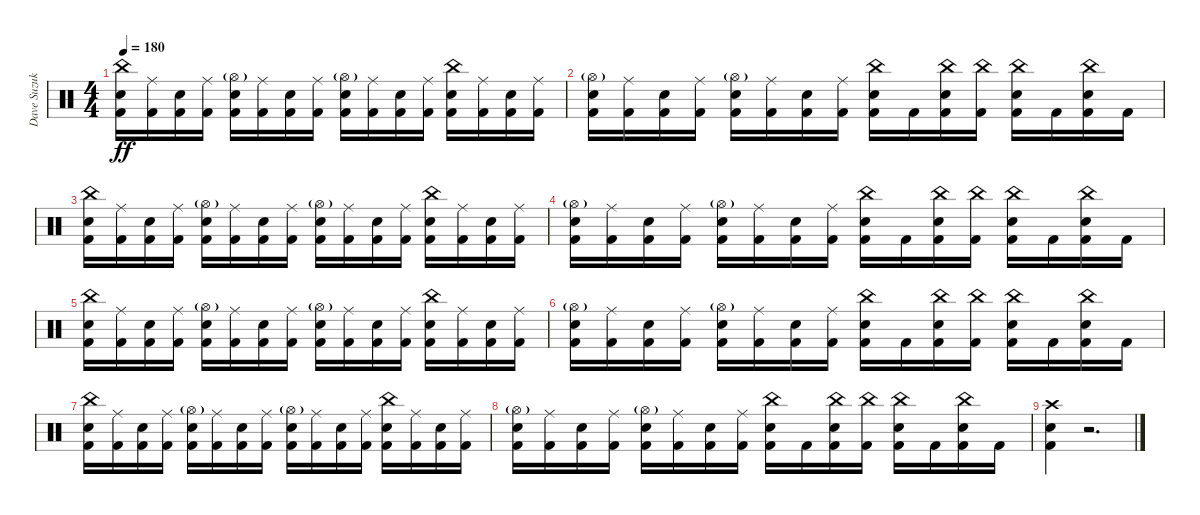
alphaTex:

\track ("Dave Suzuki - Drums" "Dave Suzuk") {instrument percussion}
\staff {score}
\articulation defaults
\ts (4 4)
\tempo 180
\clef neutral
\ks c
("China (hit)" "Electric Snare (hit)" "Kick (hit) 2").16{dy ff} ("Ride (middle)" "Kick (hit) 2").16 ("Electric Snare (hit)" "Kick (hit) 2").16 ("Ride (middle)" "Kick (hit) 2").16 ("Hi-Hat (open)"{g} "Electric Snare (hit)" "Kick (hit) 2").16 ("Ride (middle)" "Kick (hit) 2").16 ("Electric Snare (hit)" "Kick (hit) 2").16 ("Ride (middle)" "Kick (hit) 2").16 ("Hi-Hat (open)"{g} "Electric Snare (hit)" "Kick (hit) 2").16 ("Ride (middle)" "Kick (hit) 2").16 ("Electric Snare (hit)" "Kick (hit) 2").16 ("Ride (middle)" "Kick (hit) 2").16 ("China (hit)" "Electric Snare (hit)" "Kick (hit) 2").16 ("Ride (middle)" "Kick (hit) 2").16 ("Electric Snare (hit)" "Kick (hit) 2").16 ("Ride (middle)" "Kick (hit) 2").16 |
("Hi-Hat (open)"{g} "Electric Snare (hit)" "Kick (hit) 2").16 ("Ride (middle)" "Kick (hit) 2").16 ("Electric Snare (hit)" "Kick (hit) 2").16 ("Ride (middle)" "Kick (hit) 2").16 ("Hi-Hat (open)"{g} "Electric Snare (hit)" "Kick (hit) 2").16 ("Ride (middle)" "Kick (hit) 2").16 ("Electric Snare (hit)" "Kick (hit) 2").16 ("Ride (middle)" "Kick (hit) 2").16 ("China (hit)" "Electric Snare (hit)" "Kick (hit) 2").16 "Kick (hit) 2".16 ("China (hit)" "Electric Snare (hit)" "Kick (hit) 2").16 ("China (hit)" "Kick (hit) 2").16 ("China (hit)" "Electric Snare (hit)" "Kick (hit) 2").16 "Kick (hit) 2".16 ("China (hit)" "Electric Snare (hit)" "Kick (hit) 2").16 "Kick (hit) 2".16 |
("China (hit)" "Electric Snare (hit)" "Kick (hit) 2").16 ("Ride (middle)" "Kick (hit) 2").16 ("Electric Snare (hit)" "Kick (hit) 2").16 ("Ride (middle)" "Kick (hit) 2").16 ("Hi-Hat (open)"{g} "Electric Snare (hit)" "Kick (hit) 2").16 ("Ride (middle)" "Kick (hit) 2").16 ("Electric Snare (hit)" "Kick (hit) 2").16 ("Ride (middle)" "Kick (hit) 2").16 ("Hi-Hat (open)"{g} "Electric Snare (hit)" "Kick (hit) 2").16 ("Ride (middle)" "Kick (hit) 2").16 ("Electric Snare (hit)" "Kick (hit) 2").16 ("Ride (middle)" "Kick (hit) 2").16 ("China (hit)" "Electric Snare (hit)" "Kick (hit) 2").16 ("Ride (middle)" "Kick (hit) 2").16 ("Electric Snare (hit)" "Kick (hit) 2").16 ("Ride (middle)" "Kick (hit) 2").16 |
("Hi-Hat (open)"{g} "Electric Snare (hit)" "Kick (hit) 2").16 ("Ride (middle)" "Kick (hit) 2").16 ("Electric Snare (hit)" "Kick (hit) 2").16 ("Ride (middle)" "Kick (hit) 2").16 ("Hi-Hat (open)"{g} "Electric Snare (hit)" "Kick (hit) 2").16 ("Ride (middle)" "Kick (hit) 2").16 ("Electric Snare (hit)" "Kick (hit) 2").16 ("Ride (middle)" "Kick (hit) 2").16 ("China (hit)" "Electric Snare (hit)" "Kick (hit) 2").16 "Kick (hit) 2".16 ("China (hit)" "Electric Snare (hit)" "Kick (hit) 2").16 ("China (hit)" "Kick (hit) 2").16 ("China (hit)" "Electric Snare (hit)" "Kick (hit) 2").16 "Kick (hit) 2".16 ("China (hit)" "Electric Snare (hit)" "Kick (hit) 2").16 "Kick (hit) 2".16 |
("China (hit)" "Electric Snare (hit)" "Kick (hit) 2").16 ("Ride (middle)" "Kick (hit) 2").16 ("Electric Snare (hit)" "Kick (hit) 2").16 ("Ride (middle)" "Kick (hit) 2").16 ("Hi-Hat (open)"{g} "Electric Snare (hit)" "Kick (hit) 2").16 ("Ride (middle)" "Kick (hit) 2").16 ("Electric Snare (hit)" "Kick (hit) 2").16 ("Ride (middle)" "Kick (hit) 2").16 ("Hi-Hat (open)"{g} "Electric Snare (hit)" "Kick (hit) 2").16 ("Ride (middle)" "Kick (hit) 2").16 ("Electric Snare (hit)" "Kick (hit) 2").16 ("Ride (middle)" "Kick (hit) 2").16 ("China (hit)" "Electric Snare (hit)" "Kick (hit) 2").16 ("Ride (middle)" "Kick (hit) 2").16 ("Electric Snare (hit)" "Kick (hit) 2").16 ("Ride (middle)" "Kick (hit) 2").16 |
("Hi-Hat (open)"{g} "Electric Snare (hit)" "Kick (hit) 2").16 ("Ride (middle)" "Kick (hit) 2").16 ("Electric Snare (hit)" "Kick (hit) 2").16 ("Ride (middle)" "Kick (hit) 2").16 ("Hi-Hat (open)"{g} "Electric Snare (hit)" "Kick (hit) 2").16 ("Ride (middle)" "Kick (hit) 2").16 ("Electric Snare (hit)" "Kick (hit) 2").16 ("Ride (middle)" "Kick (hit) 2").16 ("China (hit)" "Electric Snare (hit)" "Kick (hit) 2").16 "Kick (hit) 2".16 ("China (hit)" "Electric Snare (hit)" "Kick (hit) 2").16 ("China (hit)" "Kick (hit) 2").16 ("China (hit)" "Electric Snare (hit)" "Kick (hit) 2").16 "Kick (hit) 2".16 ("China (hit)" "Electric Snare (hit)" "Kick (hit) 2").16 "Kick (hit) 2".16 |
("China (hit)" "Electric Snare (hit)" "Kick (hit) 2").16 ("Ride (middle)" "Kick (hit) 2").16 ("Electric Snare (hit)" "Kick (hit) 2").16 ("Ride (middle)" "Kick (hit) 2").16 ("Hi-Hat (open)"{g} "Electric Snare (hit)" "Kick (hit) 2").16 ("Ride (middle)" "Kick (hit) 2").16 ("Electric Snare (hit)" "Kick (hit) 2").16 ("Ride (middle)" "Kick (hit) 2").16 ("Hi-Hat (open)"{g} "Electric Snare (hit)" "Kick (hit) 2").16 ("Ride (middle)" "Kick (hit) 2").16 ("Electric Snare (hit)" "Kick (hit) 2").16 ("Ride (middle)" "Kick (hit) 2").16 ("China (hit)" "Electric Snare (hit)" "Kick (hit) 2").16 ("Ride (middle)" "Kick (hit) 2").16 ("Electric Snare (hit)" "Kick (hit) 2").16 ("Ride (middle)" "Kick (hit) 2").16 |
("Hi-Hat (open)"{g} "Electric Snare (hit)" "Kick (hit) 2").16 ("Ride (middle)" "Kick (hit) 2").16 ("Electric Snare (hit)" "Kick (hit) 2").16 ("Ride (middle)" "Kick (hit) 2").16 ("Hi-Hat (open)"{g} "Electric Snare (hit)" "Kick (hit) 2").16 ("Ride (middle)" "Kick (hit) 2").16 ("Electric Snare (hit)" "Kick (hit) 2").16 ("Ride (middle)" "Kick (hit) 2").16 ("China (hit)" "Electric Snare (hit)" "Kick (hit) 2").16 "Kick (hit) 2".16 ("China (hit)" "Electric Snare (hit)" "Kick (hit) 2").16 ("China (hit)" "Kick (hit) 2").16 ("China (hit)" "Electric Snare (hit)" "Kick (hit) 2").16 "Kick (hit) 2".16 ("China (hit)" "Electric Snare (hit)" "Kick (hit) 2").16 "Kick (hit) 2".16 |
("Crash high (hit)" "Electric Snare (hit)" "Kick (hit) 2").4 r.2{d}
